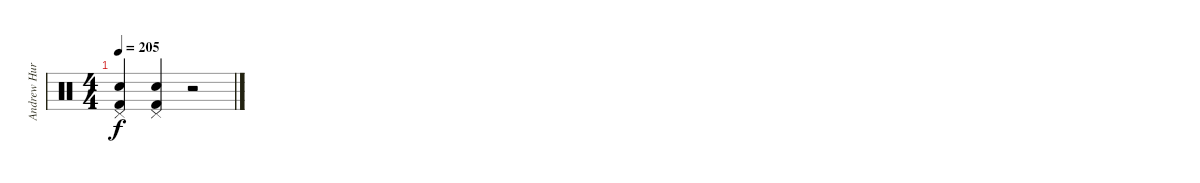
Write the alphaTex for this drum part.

\track ("Andrew Hurley (Drums)" "Andrew Hur") {instrument percussion}
\staff {score}
\articulation defaults
\ts (4 4)
\tempo 205
\clef neutral
\ks c
("Pedal Hi-Hat (hit)" "Electric Snare (hit)" "Kick (hit) 2").4{dy f} ("Pedal Hi-Hat (hit)" "Electric Snare (hit)" "Kick (hit) 2").4 r.2
